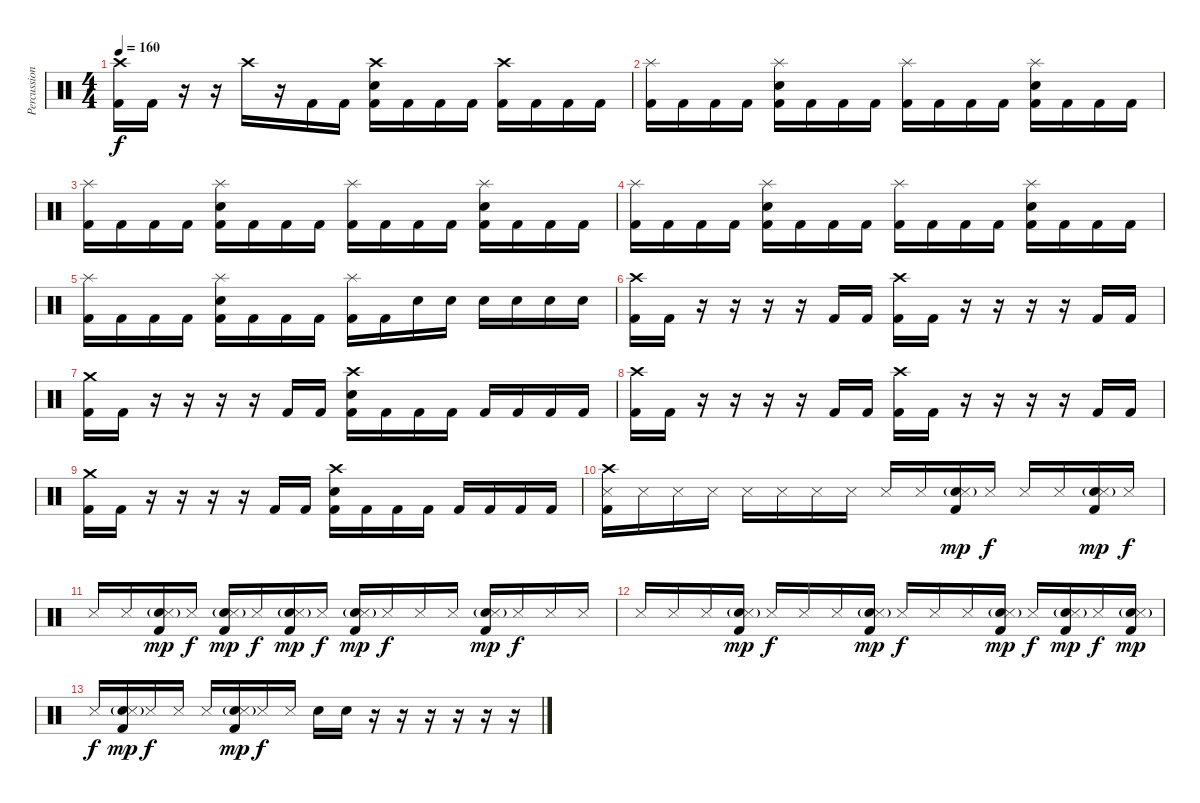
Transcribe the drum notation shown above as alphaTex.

\track ("Percussion" "Percussion") {instrument percussion}
\staff {score}
\articulation defaults
\ts (4 4)
\tempo 160
\clef neutral
\ks c
("Crash high (hit)" "Kick (hit) 2").16{dy f} "Kick (hit) 2".16 r.16 r.16 "Crash high (hit)".16 r.16 "Kick (hit) 2".16 "Kick (hit) 2".16 ("Crash high (hit)" "Electric Snare (hit)" "Kick (hit) 2").16 "Kick (hit) 2".16 "Kick (hit) 2".16 "Kick (hit) 2".16 ("Crash high (hit)" "Kick (hit) 2").16 "Kick (hit) 2".16 "Kick (hit) 2".16 "Kick (hit) 2".16 |
("Splash (hit)" "Kick (hit) 2").16 "Kick (hit) 2".16 "Kick (hit) 2".16 "Kick (hit) 2".16 ("Splash (hit)" "Electric Snare (hit)" "Kick (hit) 2").16 "Kick (hit) 2".16 "Kick (hit) 2".16 "Kick (hit) 2".16 ("Splash (hit)" "Kick (hit) 2").16 "Kick (hit) 2".16 "Kick (hit) 2".16 "Kick (hit) 2".16 ("Splash (hit)" "Electric Snare (hit)" "Kick (hit) 2").16 "Kick (hit) 2".16 "Kick (hit) 2".16 "Kick (hit) 2".16 |
("Splash (hit)" "Kick (hit) 2").16 "Kick (hit) 2".16 "Kick (hit) 2".16 "Kick (hit) 2".16 ("Splash (hit)" "Electric Snare (hit)" "Kick (hit) 2").16 "Kick (hit) 2".16 "Kick (hit) 2".16 "Kick (hit) 2".16 ("Splash (hit)" "Kick (hit) 2").16 "Kick (hit) 2".16 "Kick (hit) 2".16 "Kick (hit) 2".16 ("Splash (hit)" "Electric Snare (hit)" "Kick (hit) 2").16 "Kick (hit) 2".16 "Kick (hit) 2".16 "Kick (hit) 2".16 |
("Splash (hit)" "Kick (hit) 2").16 "Kick (hit) 2".16 "Kick (hit) 2".16 "Kick (hit) 2".16 ("Splash (hit)" "Electric Snare (hit)" "Kick (hit) 2").16 "Kick (hit) 2".16 "Kick (hit) 2".16 "Kick (hit) 2".16 ("Splash (hit)" "Kick (hit) 2").16 "Kick (hit) 2".16 "Kick (hit) 2".16 "Kick (hit) 2".16 ("Splash (hit)" "Electric Snare (hit)" "Kick (hit) 2").16 "Kick (hit) 2".16 "Kick (hit) 2".16 "Kick (hit) 2".16 |
("Splash (hit)" "Kick (hit) 2").16 "Kick (hit) 2".16 "Kick (hit) 2".16 "Kick (hit) 2".16 ("Splash (hit)" "Electric Snare (hit)" "Kick (hit) 2").16 "Kick (hit) 2".16 "Kick (hit) 2".16 "Kick (hit) 2".16 ("Splash (hit)" "Kick (hit) 2").16 "Kick (hit) 2".16 "Electric Snare (hit)".16 "Electric Snare (hit)".16 "Electric Snare (hit)".16 "Electric Snare (hit)".16 "Electric Snare (hit)".16 "Electric Snare (hit)".16 |
("Crash high (hit)" "Kick (hit) 2").16 "Kick (hit) 2".16 r.16 r.16 r.16 r.16 "Kick (hit) 2".16 "Kick (hit) 2".16 ("Crash high (hit)" "Kick (hit) 2").16 "Kick (hit) 2".16 r.16 r.16 r.16 r.16 "Kick (hit) 2".16 "Kick (hit) 2".16 |
("Crash medium (hit)" "Kick (hit) 2").16 "Kick (hit) 2".16 r.16 r.16 r.16 r.16 "Kick (hit) 2".16 "Kick (hit) 2".16 ("Crash high (hit)" "Electric Snare (hit)" "Kick (hit) 2").16 "Kick (hit) 2".16 "Kick (hit) 2".16 "Kick (hit) 2".16 "Kick (hit) 2".16 "Kick (hit) 2".16 "Kick (hit) 2".16 "Kick (hit) 2".16 |
("Crash high (hit)" "Kick (hit) 2").16 "Kick (hit) 2".16 r.16 r.16 r.16 r.16 "Kick (hit) 2".16 "Kick (hit) 2".16 ("Crash high (hit)" "Kick (hit) 2").16 "Kick (hit) 2".16 r.16 r.16 r.16 r.16 "Kick (hit) 2".16 "Kick (hit) 2".16 |
("Crash medium (hit)" "Kick (hit) 2").16 "Kick (hit) 2".16 r.16 r.16 r.16 r.16 "Kick (hit) 2".16 "Kick (hit) 2".16 ("Crash high (hit)" "Electric Snare (hit)" "Kick (hit) 2").16 "Kick (hit) 2".16 "Kick (hit) 2".16 "Kick (hit) 2".16 "Kick (hit) 2".16 "Kick (hit) 2".16 "Kick (hit) 2".16 "Kick (hit) 2".16 |
("Crash high (hit)" "Snare (side stick) 3" "Kick (hit) 2").16 "Snare (side stick) 3".16 "Snare (side stick) 3".16 "Snare (side stick) 3".16 "Snare (side stick) 3".16 "Snare (side stick) 3".16 "Snare (side stick) 3".16 "Snare (side stick) 3".16 "Snare (side stick) 3".16 "Snare (side stick) 3".16 ("Snare (hit) 2"{g} "Snare (side stick) 3" "Kick (hit) 2").16{dy mp} "Snare (side stick) 3".16{dy f} "Snare (side stick) 3".16 "Snare (side stick) 3".16 ("Snare (hit) 2"{g} "Snare (side stick) 3" "Kick (hit) 2").16{dy mp} "Snare (side stick) 3".16{dy f} |
"Snare (side stick) 3".16 "Snare (side stick) 3".16 ("Snare (hit) 2"{g} "Snare (side stick) 3" "Kick (hit) 2").16{dy mp} "Snare (side stick) 3".16{dy f} ("Snare (hit) 2"{g} "Snare (side stick) 3" "Kick (hit) 2").16{dy mp} "Snare (side stick) 3".16{dy f} ("Snare (hit) 2"{g} "Snare (side stick) 3" "Kick (hit) 2").16{dy mp} "Snare (side stick) 3".16{dy f} ("Snare (hit) 2"{g} "Snare (side stick) 3" "Kick (hit) 2").16{dy mp} "Snare (side stick) 3".16{dy f} "Snare (side stick) 3".16 "Snare (side stick) 3".16 ("Snare (hit) 2"{g} "Snare (side stick) 3" "Kick (hit) 2").16{dy mp} "Snare (side stick) 3".16{dy f} "Snare (side stick) 3".16 "Snare (side stick) 3".16 |
"Snare (side stick) 3".16 "Snare (side stick) 3".16 "Snare (side stick) 3".16 ("Snare (hit) 2"{g} "Snare (side stick) 3" "Kick (hit) 2").16{dy mp} "Snare (side stick) 3".16{dy f} "Snare (side stick) 3".16 "Snare (side stick) 3".16 ("Snare (hit) 2"{g} "Snare (side stick) 3" "Kick (hit) 2").16{dy mp} "Snare (side stick) 3".16{dy f} "Snare (side stick) 3".16 "Snare (side stick) 3".16 ("Snare (hit) 2"{g} "Snare (side stick) 3" "Kick (hit) 2").16{dy mp} "Snare (side stick) 3".16{dy f} ("Snare (hit) 2"{g} "Snare (side stick) 3" "Kick (hit) 2").16{dy mp} "Snare (side stick) 3".16{dy f} ("Snare (hit) 2"{g} "Snare (side stick) 3" "Kick (hit) 2").16{dy mp} |
"Snare (side stick) 3".16{dy f} ("Snare (hit) 2"{g} "Snare (side stick) 3" "Kick (hit) 2").16{dy mp} "Snare (side stick) 3".16{dy f} "Snare (side stick) 3".16 "Snare (side stick) 3".16 ("Snare (hit) 2"{g} "Snare (side stick) 3" "Kick (hit) 2").16{dy mp} "Snare (side stick) 3".16{dy f} "Snare (side stick) 3".16 "Electric Snare (hit)".16 "Electric Snare (hit)".16 r.16 r.16 r.16 r.16 r.16 r.16
